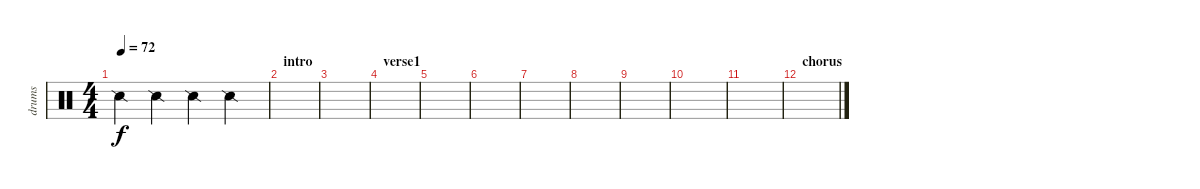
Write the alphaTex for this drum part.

\track ("drums" "drums") {instrument percussion}
\staff {score}
\articulation defaults
\ts (4 4)
\tempo 72
\clef neutral
\ks c "Snare (side stick) 2".4{dy f} "Snare (side stick) 2".4 "Snare (side stick) 2".4 "Snare (side stick) 2".4
|
\section ("" "intro")
|
|
\section ("" "verse1")
|
|
|
|
|
|
|
|
\section ("" "chorus")
